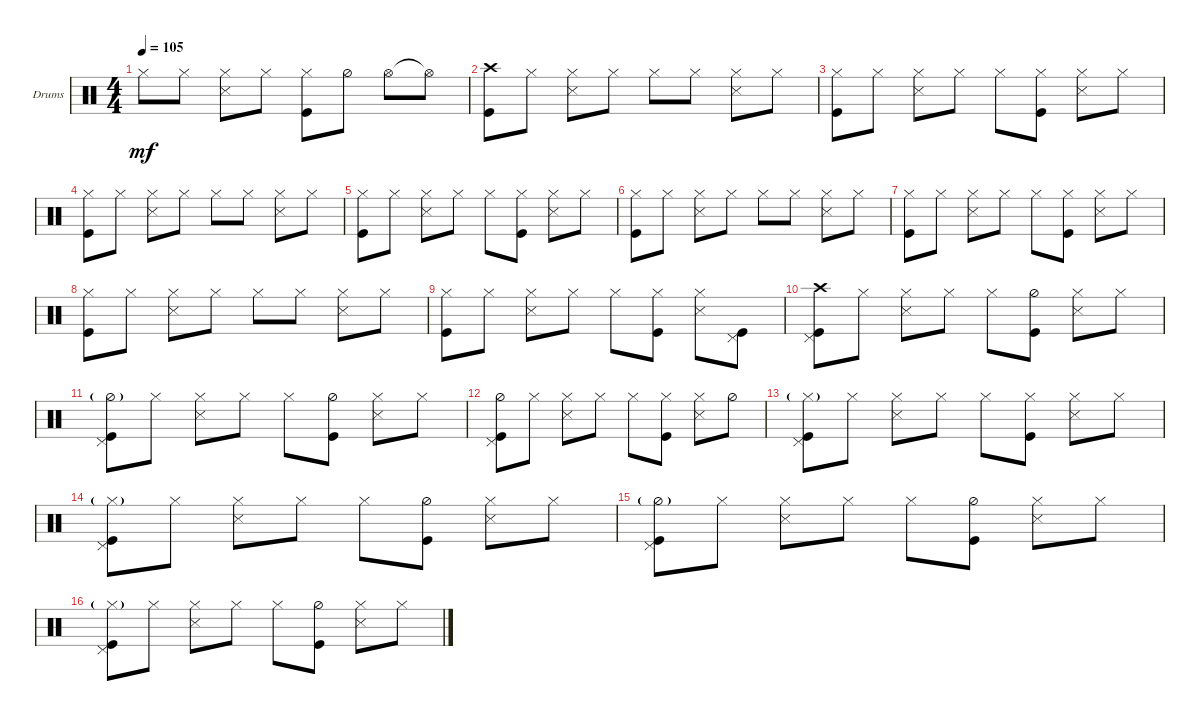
\bracketExtendMode groupsimilarinstruments
\firstSystemTrackNameOrientation horizontal
\otherSystemsTrackNameOrientation horizontal
\track ("Алексей Мещеряков" "Drums") {instrument percussion}
\staff {score}
\articulation defaults
\ts (4 4)
\tempo 105
\clef neutral
\ks c "Hi-Hat (closed)".8{dy mf} "Hi-Hat (closed)".8
("Hi-Hat (closed)" "Snare (side stick) 3").8 "Hi-Hat (closed)".8 ("Hi-Hat (closed)" "Kick (hit)").8 "Hi-Hat (half)".8 "Hi-Hat (open)".8 "Hi-Hat (open)"{t}.8 |
("Kick (hit)" "Crash high (hit)").8 "Hi-Hat (closed)".8 ("Hi-Hat (closed)" "Snare (side stick) 3").8 "Hi-Hat (closed)".8 "Hi-Hat (closed)".8 "Hi-Hat (closed)".8 ("Hi-Hat (closed)" "Snare (side stick) 3").8 "Hi-Hat (closed)".8 |
("Hi-Hat (closed)" "Kick (hit)").8 "Hi-Hat (closed)".8 ("Hi-Hat (closed)" "Snare (side stick) 3").8 "Hi-Hat (closed)".8 "Hi-Hat (closed)".8 ("Hi-Hat (closed)" "Kick (hit)").8 ("Hi-Hat (closed)" "Snare (side stick) 3").8 "Hi-Hat (closed)".8 |
("Hi-Hat (closed)" "Kick (hit)").8 "Hi-Hat (closed)".8 ("Hi-Hat (closed)" "Snare (side stick) 3").8 "Hi-Hat (closed)".8 "Hi-Hat (closed)".8 "Hi-Hat (closed)".8 ("Hi-Hat (closed)" "Snare (side stick) 3").8 "Hi-Hat (closed)".8 |
("Hi-Hat (closed)" "Kick (hit)").8 "Hi-Hat (closed)".8 ("Hi-Hat (closed)" "Snare (side stick) 3").8 "Hi-Hat (closed)".8 "Hi-Hat (closed)".8 ("Hi-Hat (closed)" "Kick (hit)").8 ("Hi-Hat (closed)" "Snare (side stick) 3").8 "Hi-Hat (closed)".8 |
("Hi-Hat (closed)" "Kick (hit)").8 "Hi-Hat (closed)".8 ("Hi-Hat (closed)" "Snare (side stick) 3").8 "Hi-Hat (closed)".8 "Hi-Hat (closed)".8 "Hi-Hat (closed)".8 ("Hi-Hat (closed)" "Snare (side stick) 3").8 "Hi-Hat (closed)".8 |
("Hi-Hat (closed)" "Kick (hit)").8 "Hi-Hat (closed)".8 ("Hi-Hat (closed)" "Snare (side stick) 3").8 "Hi-Hat (closed)".8 "Hi-Hat (closed)".8 ("Hi-Hat (closed)" "Kick (hit)").8 ("Hi-Hat (closed)" "Snare (side stick) 3").8 "Hi-Hat (closed)".8 |
("Hi-Hat (closed)" "Kick (hit)").8 "Hi-Hat (closed)".8 ("Hi-Hat (closed)" "Snare (side stick) 3").8 "Hi-Hat (closed)".8 "Hi-Hat (closed)".8 "Hi-Hat (closed)".8 ("Hi-Hat (closed)" "Snare (side stick) 3").8 "Hi-Hat (closed)".8 |
("Hi-Hat (closed)" "Kick (hit)").8 "Hi-Hat (closed)".8 ("Hi-Hat (closed)" "Snare (side stick) 3").8 "Hi-Hat (closed)".8 "Hi-Hat (closed)".8 ("Hi-Hat (closed)" "Kick (hit)").8 ("Hi-Hat (closed)" "Snare (side stick) 3").8 ("Kick (hit)" "Pedal Hi-Hat (hit)").8 |
("Kick (hit)" "Crash high (hit)" "Pedal Hi-Hat (hit)").8 "Hi-Hat (closed)".8 ("Hi-Hat (closed)" "Snare (side stick) 3").8 "Hi-Hat (closed)".8 "Hi-Hat (closed)".8 ("Hi-Hat (half)" "Kick (hit)").8 ("Hi-Hat (closed)" "Snare (side stick) 3").8 "Hi-Hat (closed)".8 |
("Kick (hit)" "Pedal Hi-Hat (hit)" "Hi-Hat (half)"{g}).8 "Hi-Hat (closed)".8 ("Hi-Hat (closed)" "Snare (side stick) 3").8 "Hi-Hat (closed)".8 "Hi-Hat (closed)".8 ("Kick (hit)" "Hi-Hat (half)").8 ("Hi-Hat (closed)" "Snare (side stick) 3").8 "Hi-Hat (closed)".8 |
("Kick (hit)" "Pedal Hi-Hat (hit)" "Hi-Hat (half)").8 "Hi-Hat (closed)".8 ("Hi-Hat (closed)" "Snare (side stick) 3").8 "Hi-Hat (closed)".8 "Hi-Hat (closed)".8 ("Kick (hit)" "Hi-Hat (closed)").8 ("Hi-Hat (closed)" "Snare (side stick) 3").8 "Hi-Hat (half)".8 |
("Kick (hit)" "Pedal Hi-Hat (hit)" "Hi-Hat (closed)"{g}).8 "Hi-Hat (closed)".8 ("Hi-Hat (closed)" "Snare (side stick) 3").8 "Hi-Hat (closed)".8 "Hi-Hat (closed)".8 ("Kick (hit)" "Hi-Hat (closed)").8 ("Hi-Hat (closed)" "Snare (side stick) 3").8 "Hi-Hat (closed)".8 |
("Kick (hit)" "Pedal Hi-Hat (hit)" "Hi-Hat (closed)"{g}).8 "Hi-Hat (closed)".8 ("Hi-Hat (closed)" "Snare (side stick) 3").8 "Hi-Hat (closed)".8 "Hi-Hat (closed)".8 ("Kick (hit)" "Hi-Hat (half)").8 ("Hi-Hat (closed)" "Snare (side stick) 3").8 "Hi-Hat (closed)".8 |
("Kick (hit)" "Pedal Hi-Hat (hit)" "Hi-Hat (half)"{g}).8 "Hi-Hat (closed)".8 ("Hi-Hat (closed)" "Snare (side stick) 3").8 "Hi-Hat (closed)".8 "Hi-Hat (closed)".8 ("Kick (hit)" "Hi-Hat (half)").8 ("Hi-Hat (closed)" "Snare (side stick) 3").8 "Hi-Hat (closed)".8 |
("Kick (hit)" "Pedal Hi-Hat (hit)" "Hi-Hat (closed)"{g}).8 "Hi-Hat (closed)".8 ("Hi-Hat (closed)" "Snare (side stick) 3").8 "Hi-Hat (closed)".8 "Hi-Hat (closed)".8 ("Kick (hit)" "Hi-Hat (half)").8 ("Hi-Hat (closed)" "Snare (side stick) 3").8 "Hi-Hat (closed)".8
